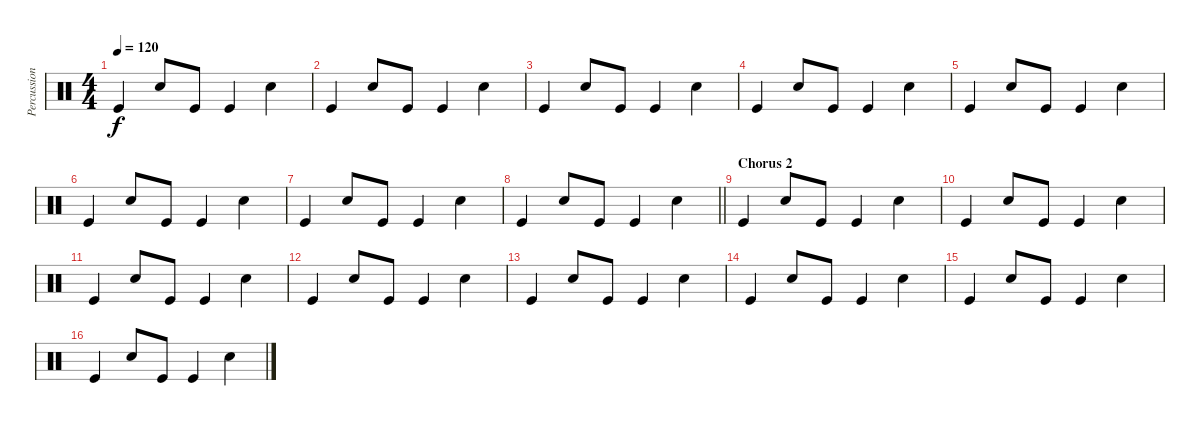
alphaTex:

\track ("Percussion" "Percussion") {instrument percussion}
\staff {score}
\articulation defaults
\ts (4 4)
\tempo 120
\clef neutral
\ks c "Kick (hit)".4{dy f} "Electric Snare (hit)".8 "Kick (hit)".8 "Kick (hit)".4 "Electric Snare (hit)".4
|
"Kick (hit)".4 "Electric Snare (hit)".8 "Kick (hit)".8 "Kick (hit)".4 "Electric Snare (hit)".4 |
"Kick (hit)".4 "Electric Snare (hit)".8 "Kick (hit)".8 "Kick (hit)".4 "Electric Snare (hit)".4 |
"Kick (hit)".4 "Electric Snare (hit)".8 "Kick (hit)".8 "Kick (hit)".4 "Electric Snare (hit)".4 |
"Kick (hit)".4 "Electric Snare (hit)".8 "Kick (hit)".8 "Kick (hit)".4 "Electric Snare (hit)".4 |
"Kick (hit)".4 "Electric Snare (hit)".8 "Kick (hit)".8 "Kick (hit)".4 "Electric Snare (hit)".4 |
"Kick (hit)".4 "Electric Snare (hit)".8 "Kick (hit)".8 "Kick (hit)".4 "Electric Snare (hit)".4 |
\barLineRight lightlight "Kick (hit)".4 "Electric Snare (hit)".8 "Kick (hit)".8 "Kick (hit)".4 "Electric Snare (hit)".4
|
\section ("" "Chorus 2")
"Kick (hit)".4 "Electric Snare (hit)".8 "Kick (hit)".8 "Kick (hit)".4 "Electric Snare (hit)".4 |
"Kick (hit)".4 "Electric Snare (hit)".8 "Kick (hit)".8 "Kick (hit)".4 "Electric Snare (hit)".4 |
"Kick (hit)".4 "Electric Snare (hit)".8 "Kick (hit)".8 "Kick (hit)".4 "Electric Snare (hit)".4 |
"Kick (hit)".4 "Electric Snare (hit)".8 "Kick (hit)".8 "Kick (hit)".4 "Electric Snare (hit)".4 |
"Kick (hit)".4 "Electric Snare (hit)".8 "Kick (hit)".8 "Kick (hit)".4 "Electric Snare (hit)".4 |
"Kick (hit)".4 "Electric Snare (hit)".8 "Kick (hit)".8 "Kick (hit)".4 "Electric Snare (hit)".4 |
"Kick (hit)".4 "Electric Snare (hit)".8 "Kick (hit)".8 "Kick (hit)".4 "Electric Snare (hit)".4 |
"Kick (hit)".4 "Electric Snare (hit)".8 "Kick (hit)".8 "Kick (hit)".4 "Electric Snare (hit)".4
